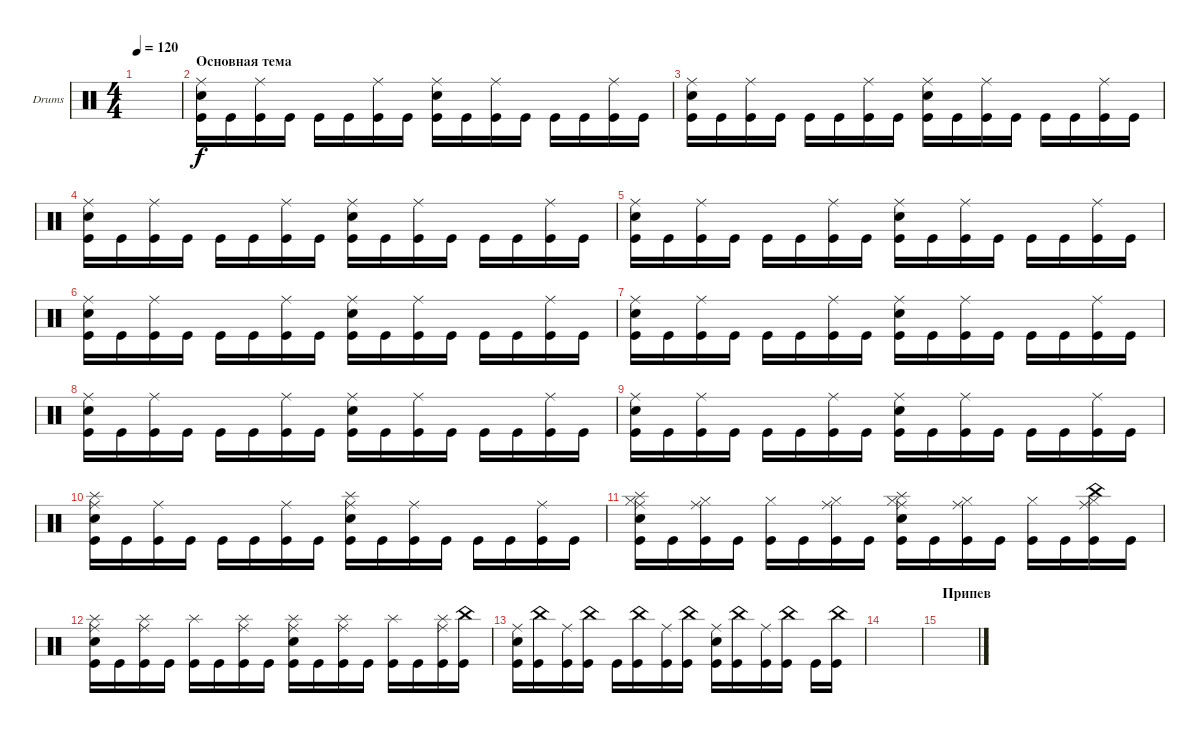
\defaultSystemsLayout 4
\bracketExtendMode groupsimilarinstruments
\firstSystemTrackNameOrientation horizontal
\otherSystemsTrackNameOrientation horizontal
\track ("Drumkit" "Drums") {instrument percussion}
\staff {score}
\articulation defaults
\ts (4 4)
\tempo 120
\clef neutral
\scale
0.333333
\ks c
|
\section ("" "Основная тема")
\scale
0.333333 ("Ride (middle)" "Snare (hit) 2" "Kick (hit)").16 "Kick (hit)".16 ("Ride (middle)" "Kick (hit)").16 "Kick (hit)".16 "Kick (hit)".16 "Kick (hit)".16 ("Ride (middle)" "Kick (hit)").16 "Kick (hit)".16 ("Ride (middle)" "Snare (hit) 2" "Kick (hit)").16 "Kick (hit)".16 ("Ride (middle)" "Kick (hit)").16 "Kick (hit)".16 "Kick (hit)".16 "Kick (hit)".16 ("Ride (middle)" "Kick (hit)").16 "Kick (hit)".16 |
\scale
0.333333 ("Ride (middle)" "Snare (hit) 2" "Kick (hit)").16 "Kick (hit)".16 ("Ride (middle)" "Kick (hit)").16 "Kick (hit)".16 "Kick (hit)".16 "Kick (hit)".16 ("Ride (middle)" "Kick (hit)").16 "Kick (hit)".16 ("Ride (middle)" "Snare (hit) 2" "Kick (hit)").16 "Kick (hit)".16 ("Ride (middle)" "Kick (hit)").16 "Kick (hit)".16 "Kick (hit)".16 "Kick (hit)".16 ("Ride (middle)" "Kick (hit)").16 "Kick (hit)".16 |
\scale
0.333333 ("Ride (middle)" "Snare (hit) 2" "Kick (hit)").16 "Kick (hit)".16 ("Ride (middle)" "Kick (hit)").16 "Kick (hit)".16 "Kick (hit)".16 "Kick (hit)".16 ("Ride (middle)" "Kick (hit)").16 "Kick (hit)".16 ("Ride (middle)" "Snare (hit) 2" "Kick (hit)").16 "Kick (hit)".16 ("Ride (middle)" "Kick (hit)").16 "Kick (hit)".16 "Kick (hit)".16 "Kick (hit)".16 ("Ride (middle)" "Kick (hit)").16 "Kick (hit)".16 |
\scale
0.333333 ("Ride (middle)" "Snare (hit) 2" "Kick (hit)").16 "Kick (hit)".16 ("Ride (middle)" "Kick (hit)").16 "Kick (hit)".16 "Kick (hit)".16 "Kick (hit)".16 ("Ride (middle)" "Kick (hit)").16 "Kick (hit)".16 ("Ride (middle)" "Snare (hit) 2" "Kick (hit)").16 "Kick (hit)".16 ("Ride (middle)" "Kick (hit)").16 "Kick (hit)".16 "Kick (hit)".16 "Kick (hit)".16 ("Ride (middle)" "Kick (hit)").16 "Kick (hit)".16 |
\scale
0.333333 ("Ride (middle)" "Snare (hit) 2" "Kick (hit)").16 "Kick (hit)".16 ("Ride (middle)" "Kick (hit)").16 "Kick (hit)".16 "Kick (hit)".16 "Kick (hit)".16 ("Ride (middle)" "Kick (hit)").16 "Kick (hit)".16 ("Ride (middle)" "Snare (hit) 2" "Kick (hit)").16 "Kick (hit)".16 ("Ride (middle)" "Kick (hit)").16 "Kick (hit)".16 "Kick (hit)".16 "Kick (hit)".16 ("Ride (middle)" "Kick (hit)").16 "Kick (hit)".16 |
\scale
0.333333 ("Ride (middle)" "Snare (hit) 2" "Kick (hit)").16 "Kick (hit)".16 ("Ride (middle)" "Kick (hit)").16 "Kick (hit)".16 "Kick (hit)".16 "Kick (hit)".16 ("Ride (middle)" "Kick (hit)").16 "Kick (hit)".16 ("Ride (middle)" "Snare (hit) 2" "Kick (hit)").16 "Kick (hit)".16 ("Ride (middle)" "Kick (hit)").16 "Kick (hit)".16 "Kick (hit)".16 "Kick (hit)".16 ("Ride (middle)" "Kick (hit)").16 "Kick (hit)".16 |
\scale
0.333333 ("Ride (middle)" "Snare (hit) 2" "Kick (hit)").16 "Kick (hit)".16 ("Ride (middle)" "Kick (hit)").16 "Kick (hit)".16 "Kick (hit)".16 "Kick (hit)".16 ("Ride (middle)" "Kick (hit)").16 "Kick (hit)".16 ("Ride (middle)" "Snare (hit) 2" "Kick (hit)").16 "Kick (hit)".16 ("Ride (middle)" "Kick (hit)").16 "Kick (hit)".16 "Kick (hit)".16 "Kick (hit)".16 ("Ride (middle)" "Kick (hit)").16 "Kick (hit)".16 |
\scale
0.333333 ("Ride (middle)" "Snare (hit) 2" "Kick (hit)").16 "Kick (hit)".16 ("Ride (middle)" "Kick (hit)").16 "Kick (hit)".16 "Kick (hit)".16 "Kick (hit)".16 ("Ride (middle)" "Kick (hit)").16 "Kick (hit)".16 ("Ride (middle)" "Snare (hit) 2" "Kick (hit)").16 "Kick (hit)".16 ("Ride (middle)" "Kick (hit)").16 "Kick (hit)".16 "Kick (hit)".16 "Kick (hit)".16 ("Ride (middle)" "Kick (hit)").16 "Kick (hit)".16 |
\scale
0.333333 ("Ride (middle)" "Snare (hit) 2" "Kick (hit)" "Splash (hit)").16 "Kick (hit)".16 ("Ride (middle)" "Kick (hit)").16 "Kick (hit)".16 "Kick (hit)".16 "Kick (hit)".16 ("Ride (middle)" "Kick (hit)").16 "Kick (hit)".16 ("Ride (middle)" "Snare (hit) 2" "Kick (hit)" "Splash (hit)").16 "Kick (hit)".16 ("Ride (middle)" "Kick (hit)").16 "Kick (hit)".16 "Kick (hit)".16 "Kick (hit)".16 ("Ride (middle)" "Kick (hit)").16 "Kick (hit)".16 |
\scale
0.333333 ("Ride (middle)" "Snare (hit) 2" "Kick (hit)" "Hi-Hat (closed)" "Splash (hit)").16 "Kick (hit)".16 ("Ride (middle)" "Kick (hit)" "Hi-Hat (closed)").16 "Kick (hit)".16 ("Kick (hit)" "Hi-Hat (closed)").16 "Kick (hit)".16 ("Ride (middle)" "Kick (hit)" "Hi-Hat (closed)").16 "Kick (hit)".16 ("Ride (middle)" "Snare (hit) 2" "Kick (hit)" "Hi-Hat (closed)" "Splash (hit)").16 "Kick (hit)".16 ("Ride (middle)" "Kick (hit)" "Hi-Hat (closed)").16 "Kick (hit)".16 ("Kick (hit)" "Hi-Hat (closed)").16 "Kick (hit)".16 ("Ride (middle)" "Kick (hit)" "Hi-Hat (closed)" "China (hit)").16 "Kick (hit)".16 |
\scale
0.333333 ("Ride (middle)" "Snare (hit) 2" "Kick (hit)" "Splash (hit)").16 "Kick (hit)".16 ("Ride (middle)" "Kick (hit)" "Splash (hit)").16 "Kick (hit)".16 ("Kick (hit)" "Splash (hit)").16 "Kick (hit)".16 ("Ride (middle)" "Kick (hit)" "Splash (hit)").16 "Kick (hit)".16 ("Ride (middle)" "Snare (hit) 2" "Kick (hit)" "Splash (hit)").16 "Kick (hit)".16 ("Ride (middle)" "Kick (hit)" "Splash (hit)").16 "Kick (hit)".16 ("Kick (hit)" "Splash (hit)").16 "Kick (hit)".16 ("Ride (middle)" "Kick (hit)" "Splash (hit)").16 ("Kick (hit)" "China (hit)").16 |
\scale
0.333333 ("Ride (middle)" "Snare (hit) 2" "Kick (hit)").16 ("Kick (hit)" "China (hit)").16 ("Ride (middle)" "Kick (hit)").16 ("Kick (hit)" "China (hit)").16 "Kick (hit)".16 ("Kick (hit)" "China (hit)").16 ("Ride (middle)" "Kick (hit)").16 ("Kick (hit)" "China (hit)").16 ("Ride (middle)" "Snare (hit) 2" "Kick (hit)").16 ("Kick (hit)" "China (hit)").16 ("Ride (middle)" "Kick (hit)").16 ("Kick (hit)" "China (hit)").16 "Kick (hit)".16 ("Kick (hit)" "China (hit)").16 |
\scale
0.333333 |
\section ("" "Припев")
\scale
0.333333 |
\scale
0.333333
